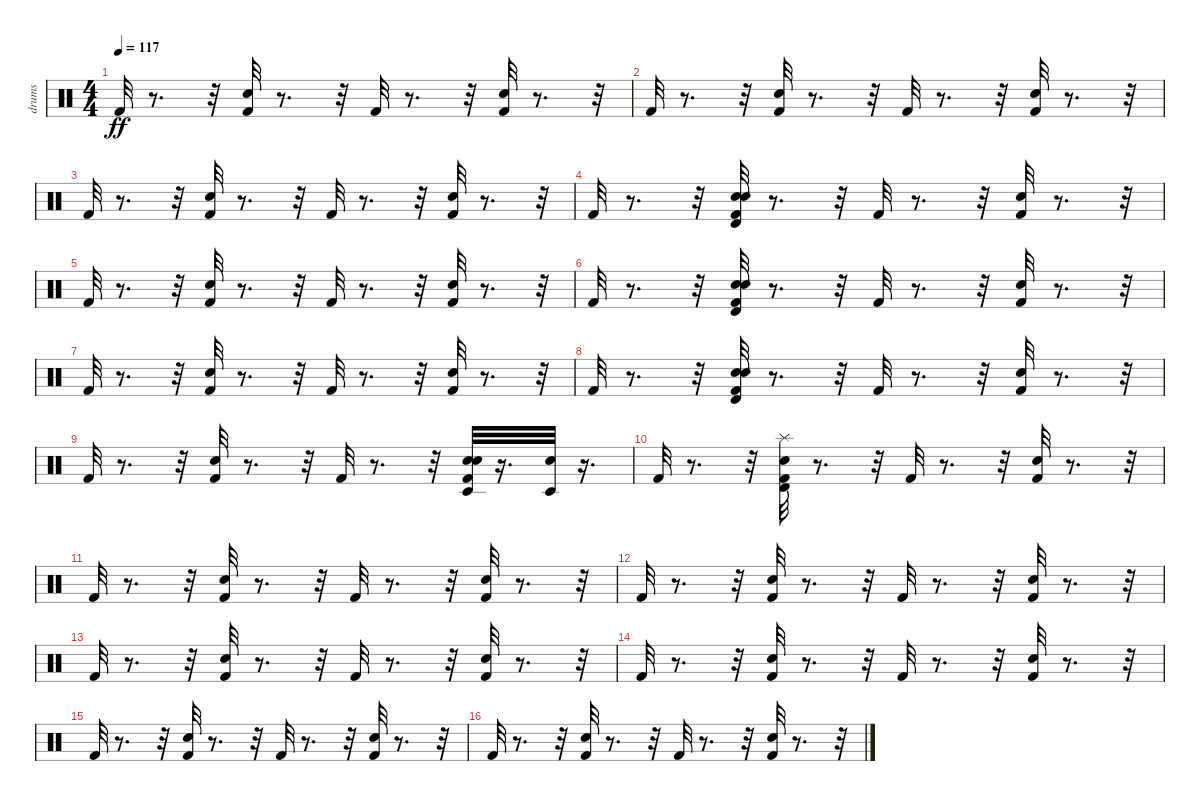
\track ("drums   " "drums   ") {instrument percussion}
\staff {score}
\articulation defaults
\ts (4 4)
\tempo 117
\clef neutral
\ks c "Kick (hit) 2".32{dy ff}
r.8{d} r.32 ("Kick (hit) 2" "Snare (hit) 2").32 r.8{d} r.32 "Kick (hit) 2".32 r.8{d} r.32 ("Kick (hit) 2" "Snare (hit) 2").32 r.8{d} r.32 |
"Kick (hit) 2".32 r.8{d} r.32 ("Kick (hit) 2" "Snare (hit) 2").32 r.8{d} r.32 "Kick (hit) 2".32 r.8{d} r.32 ("Snare (hit) 2" "Kick (hit) 2").32 r.8{d} r.32 |
"Kick (hit) 2".32 r.8{d} r.32 ("Snare (hit) 2" "Kick (hit) 2").32 r.8{d} r.32 "Kick (hit) 2".32 r.8{d} r.32 ("Kick (hit) 2" "Snare (hit) 2").32 r.8{d} r.32 |
"Kick (hit) 2".32 r.8{d} r.32 ("Hand Clap (hit)" "Timbale high (hit)" "Kick (hit) 2" "Snare (hit) 2").32 r.8{d} r.32 "Kick (hit) 2".32 r.8{d} r.32 ("Kick (hit) 2" "Snare (hit) 2").32 r.8{d} r.32 |
"Kick (hit) 2".32 r.8{d} r.32 ("Kick (hit) 2" "Snare (hit) 2").32 r.8{d} r.32 "Kick (hit) 2".32 r.8{d} r.32 ("Kick (hit) 2" "Snare (hit) 2").32 r.8{d} r.32 |
"Kick (hit) 2".32 r.8{d} r.32 ("Timbale high (hit)" "Snare (hit) 2" "Kick (hit) 2" "Hand Clap (hit)").32 r.8{d} r.32 "Kick (hit) 2".32 r.8{d} r.32 ("Kick (hit) 2" "Snare (hit) 2").32 r.8{d} r.32 |
"Kick (hit) 2".32 r.8{d} r.32 ("Kick (hit) 2" "Snare (hit) 2").32 r.8{d} r.32 "Kick (hit) 2".32 r.8{d} r.32 ("Snare (hit) 2" "Kick (hit) 2").32 r.8{d} r.32 |
"Kick (hit) 2".32 r.8{d} r.32 ("Timbale high (hit)" "Kick (hit) 2" "Snare (hit) 2" "Hand Clap (hit)").32 r.8{d} r.32 "Kick (hit) 2".32 r.8{d} r.32 ("Kick (hit) 2" "Snare (hit) 2").32 r.8{d} r.32 |
"Kick (hit) 2".32 r.8{d} r.32 ("Snare (hit) 2" "Kick (hit) 2").32 r.8{d} r.32 "Kick (hit) 2".32 r.8{d} r.32 ("Kick (hit) 2" "Snare (hit) 2" "Timbale low (hit)" "Hand Clap (hit)").32 r.16{d} ("Timbale low (hit)" "Hand Clap (hit)").32 r.16{d} |
"Kick (hit) 2".32 r.8{d} r.32 ("Splash (hit)" "Timbale high (hit)" "Snare (hit) 2" "Kick (hit) 2").32 r.8{d} r.32 "Kick (hit) 2".32 r.8{d} r.32 ("Kick (hit) 2" "Snare (hit) 2").32 r.8{d} r.32 |
"Kick (hit) 2".32 r.8{d} r.32 ("Kick (hit) 2" "Snare (hit) 2").32 r.8{d} r.32 "Kick (hit) 2".32 r.8{d} r.32 ("Kick (hit) 2" "Snare (hit) 2").32 r.8{d} r.32 |
"Kick (hit) 2".32 r.8{d} r.32 ("Kick (hit) 2" "Snare (hit) 2").32 r.8{d} r.32 "Kick (hit) 2".32 r.8{d} r.32 ("Kick (hit) 2" "Snare (hit) 2").32 r.8{d} r.32 |
"Kick (hit) 2".32 r.8{d} r.32 ("Kick (hit) 2" "Snare (hit) 2").32 r.8{d} r.32 "Kick (hit) 2".32 r.8{d} r.32 ("Kick (hit) 2" "Snare (hit) 2").32 r.8{d} r.32 |
"Kick (hit) 2".32 r.8{d} r.32 ("Kick (hit) 2" "Snare (hit) 2").32 r.8{d} r.32 "Kick (hit) 2".32 r.8{d} r.32 ("Kick (hit) 2" "Snare (hit) 2").32 r.8{d} r.32 |
"Kick (hit) 2".32 r.8{d} r.32 ("Kick (hit) 2" "Snare (hit) 2").32 r.8{d} r.32 "Kick (hit) 2".32 r.8{d} r.32 ("Kick (hit) 2" "Snare (hit) 2").32 r.8{d} r.32 |
"Kick (hit) 2".32 r.8{d} r.32 ("Kick (hit) 2" "Snare (hit) 2").32 r.8{d} r.32 "Kick (hit) 2".32 r.8{d} r.32 ("Kick (hit) 2" "Snare (hit) 2").32 r.8{d} r.32
